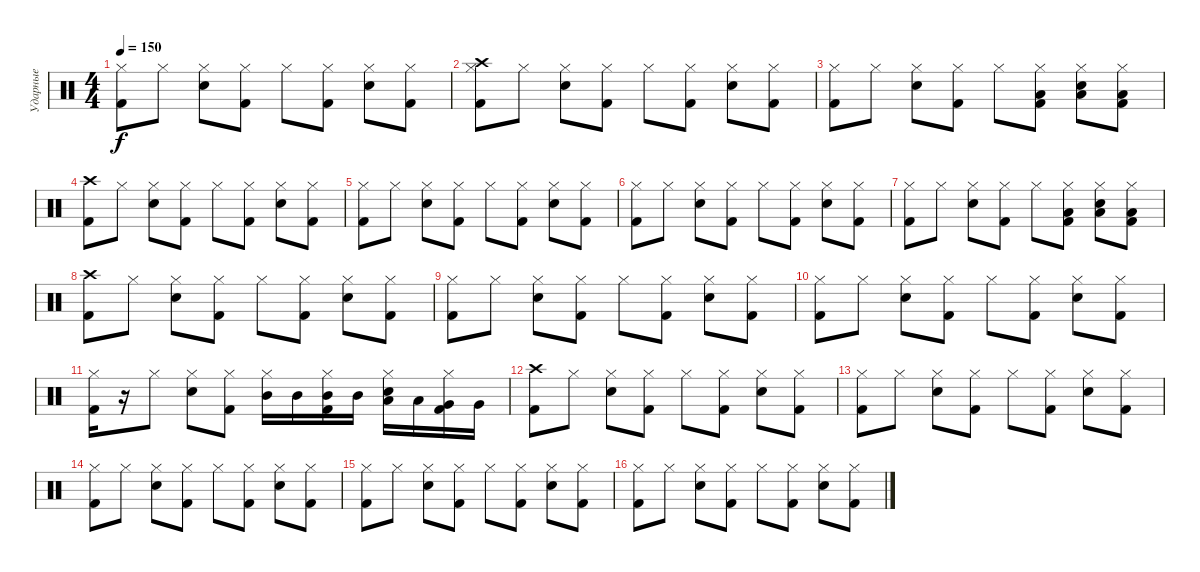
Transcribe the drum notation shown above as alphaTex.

\track ("Ударные" "Ударные") {instrument percussion}
\staff {score}
\articulation defaults
\ts (4 4)
\tempo 150
\clef neutral
\ks c
("Hi-Hat (closed)" "Kick (hit) 2").8{dy f} "Hi-Hat (closed)".8 ("Hi-Hat (closed)" "Snare (hit) 2").8 ("Hi-Hat (closed)" "Kick (hit) 2").8 "Hi-Hat (closed)".8 ("Hi-Hat (closed)" "Kick (hit) 2").8 ("Hi-Hat (closed)" "Snare (hit) 2").8 ("Hi-Hat (closed)" "Kick (hit) 2").8 |
("Hi-Hat (closed)" "Crash high (hit)" "Kick (hit) 2").8 "Hi-Hat (closed)".8 ("Hi-Hat (closed)" "Snare (hit) 2").8 ("Hi-Hat (closed)" "Kick (hit) 2").8 "Hi-Hat (closed)".8 ("Hi-Hat (closed)" "Kick (hit) 2").8 ("Hi-Hat (closed)" "Snare (hit) 2").8 ("Hi-Hat (closed)" "Kick (hit) 2").8 |
("Hi-Hat (closed)" "Kick (hit) 2").8 "Hi-Hat (closed)".8 ("Hi-Hat (closed)" "Snare (hit) 2").8 ("Hi-Hat (closed)" "Kick (hit) 2").8 "Hi-Hat (closed)".8 ("Hi-Hat (closed)" "Low Tom (hit)" "Kick (hit) 2").8 ("Hi-Hat (closed)" "Low Tom (hit)" "Snare (hit) 2").8 ("Hi-Hat (closed)" "Low Tom (hit)" "Kick (hit) 2").8 |
("Crash high (hit)" "Kick (hit) 2").8 "Hi-Hat (closed)".8 ("Hi-Hat (closed)" "Snare (hit) 2").8 ("Hi-Hat (closed)" "Kick (hit) 2").8 "Hi-Hat (closed)".8 ("Hi-Hat (closed)" "Kick (hit) 2").8 ("Hi-Hat (closed)" "Snare (hit) 2").8 ("Hi-Hat (closed)" "Kick (hit) 2").8 |
("Hi-Hat (closed)" "Kick (hit) 2").8 "Hi-Hat (closed)".8 ("Hi-Hat (closed)" "Snare (hit) 2").8 ("Hi-Hat (closed)" "Kick (hit) 2").8 "Hi-Hat (closed)".8 ("Hi-Hat (closed)" "Kick (hit) 2").8 ("Hi-Hat (closed)" "Snare (hit) 2").8 ("Hi-Hat (closed)" "Kick (hit) 2").8 |
("Hi-Hat (closed)" "Kick (hit) 2").8 "Hi-Hat (closed)".8 ("Hi-Hat (closed)" "Snare (hit) 2").8 ("Hi-Hat (closed)" "Kick (hit) 2").8 "Hi-Hat (closed)".8 ("Hi-Hat (closed)" "Kick (hit) 2").8 ("Hi-Hat (closed)" "Snare (hit) 2").8 ("Hi-Hat (closed)" "Kick (hit) 2").8 |
("Hi-Hat (closed)" "Kick (hit) 2").8 "Hi-Hat (closed)".8 ("Hi-Hat (closed)" "Snare (hit) 2").8 ("Hi-Hat (closed)" "Kick (hit) 2").8 "Hi-Hat (closed)".8 ("Hi-Hat (closed)" "Low Tom (hit)" "Kick (hit) 2").8 ("Hi-Hat (closed)" "Low Tom (hit)" "Snare (hit) 2").8 ("Hi-Hat (closed)" "Low Tom (hit)" "Kick (hit) 2").8 |
("Crash high (hit)" "Kick (hit) 2").8 "Hi-Hat (closed)".8 ("Hi-Hat (closed)" "Snare (hit) 2").8 ("Hi-Hat (closed)" "Kick (hit) 2").8 "Hi-Hat (closed)".8 ("Hi-Hat (closed)" "Kick (hit) 2").8 ("Hi-Hat (closed)" "Snare (hit) 2").8 ("Hi-Hat (closed)" "Kick (hit) 2").8 |
("Hi-Hat (closed)" "Kick (hit) 2").8 "Hi-Hat (closed)".8 ("Hi-Hat (closed)" "Snare (hit) 2").8 ("Hi-Hat (closed)" "Kick (hit) 2").8 "Hi-Hat (closed)".8 ("Hi-Hat (closed)" "Kick (hit) 2").8 ("Hi-Hat (closed)" "Snare (hit) 2").8 ("Hi-Hat (closed)" "Kick (hit) 2").8 |
("Hi-Hat (closed)" "Kick (hit) 2").8 "Hi-Hat (closed)".8 ("Hi-Hat (closed)" "Snare (hit) 2").8 ("Hi-Hat (closed)" "Kick (hit) 2").8 "Hi-Hat (closed)".8 ("Hi-Hat (closed)" "Kick (hit) 2").8 ("Hi-Hat (closed)" "Snare (hit) 2").8 ("Hi-Hat (closed)" "Kick (hit) 2").8 |
("Hi-Hat (closed)" "Kick (hit) 2").16 r.16 "Hi-Hat (closed)".8 ("Hi-Hat (closed)" "Snare (hit) 2").8 ("Hi-Hat (closed)" "Kick (hit) 2").8 ("Mid Tom (hit)" "Hi-Hat (closed)").16 "Mid Tom (hit)".16 ("Mid Tom (hit)" "Hi-Hat (closed)" "Kick (hit) 2").16 "Mid Tom (hit)".16 ("Low Tom (hit)" "Hi-Hat (closed)" "Snare (hit) 2").16 "Low Tom (hit)".16 ("Very Low Tom (hit)" "Hi-Hat (closed)" "Kick (hit) 2").16 "Very Low Tom (hit)".16 |
("Crash high (hit)" "Kick (hit) 2").8 "Hi-Hat (closed)".8 ("Snare (hit) 2" "Hi-Hat (closed)").8 ("Hi-Hat (closed)" "Kick (hit) 2").8 "Hi-Hat (closed)".8 ("Hi-Hat (closed)" "Kick (hit) 2").8 ("Snare (hit) 2" "Hi-Hat (closed)").8 ("Hi-Hat (closed)" "Kick (hit) 2").8 |
("Hi-Hat (closed)" "Kick (hit) 2").8 "Hi-Hat (closed)".8 ("Snare (hit) 2" "Hi-Hat (closed)").8 ("Hi-Hat (closed)" "Kick (hit) 2").8 "Hi-Hat (closed)".8 ("Hi-Hat (closed)" "Kick (hit) 2").8 ("Snare (hit) 2" "Hi-Hat (closed)").8 ("Hi-Hat (closed)" "Kick (hit) 2").8 |
("Hi-Hat (closed)" "Kick (hit) 2").8 "Hi-Hat (closed)".8 ("Snare (hit) 2" "Hi-Hat (closed)").8 ("Hi-Hat (closed)" "Kick (hit) 2").8 "Hi-Hat (closed)".8 ("Hi-Hat (closed)" "Kick (hit) 2").8 ("Snare (hit) 2" "Hi-Hat (closed)").8 ("Hi-Hat (closed)" "Kick (hit) 2").8 |
("Hi-Hat (closed)" "Kick (hit) 2").8 "Hi-Hat (closed)".8 ("Snare (hit) 2" "Hi-Hat (closed)").8 ("Hi-Hat (closed)" "Kick (hit) 2").8 "Hi-Hat (closed)".8 ("Hi-Hat (closed)" "Kick (hit) 2").8 ("Snare (hit) 2" "Hi-Hat (closed)").8 ("Hi-Hat (closed)" "Kick (hit) 2").8 |
("Hi-Hat (closed)" "Kick (hit) 2").8 "Hi-Hat (closed)".8 ("Snare (hit) 2" "Hi-Hat (closed)").8 ("Hi-Hat (closed)" "Kick (hit) 2").8 "Hi-Hat (closed)".8 ("Hi-Hat (closed)" "Kick (hit) 2").8 ("Snare (hit) 2" "Hi-Hat (closed)").8 ("Hi-Hat (closed)" "Kick (hit) 2").8
